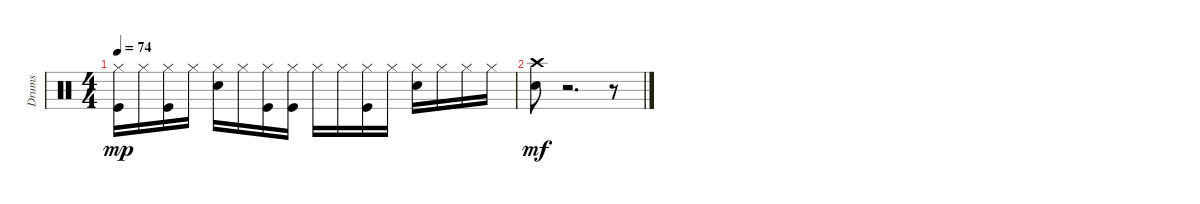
\track ("Drums" "Drums") {instrument percussion}
\staff {score}
\articulation defaults
\ts (4 4)
\tempo 74
\clef neutral
\ks c
("Kick (hit)" "Hi-Hat (closed)").16{dy mp} "Hi-Hat (closed)".16 ("Hi-Hat (closed)" "Kick (hit)").16 "Hi-Hat (closed)".16 ("Snare (hit) 2" "Hi-Hat (closed)").16 "Hi-Hat (closed)".16 ("Hi-Hat (closed)" "Kick (hit)").16 ("Hi-Hat (closed)" "Kick (hit)").16 "Hi-Hat (closed)".16 "Hi-Hat (closed)".16 ("Hi-Hat (closed)" "Kick (hit)").16 "Hi-Hat (closed)".16 ("Hi-Hat (closed)" "Snare (hit) 2").16 "Hi-Hat (closed)".16 "Hi-Hat (closed)".16 "Hi-Hat (closed)".16 |
("Snare (hit) 2" "Crash high (hit)").8{dy mf} r.2{d} r.8
